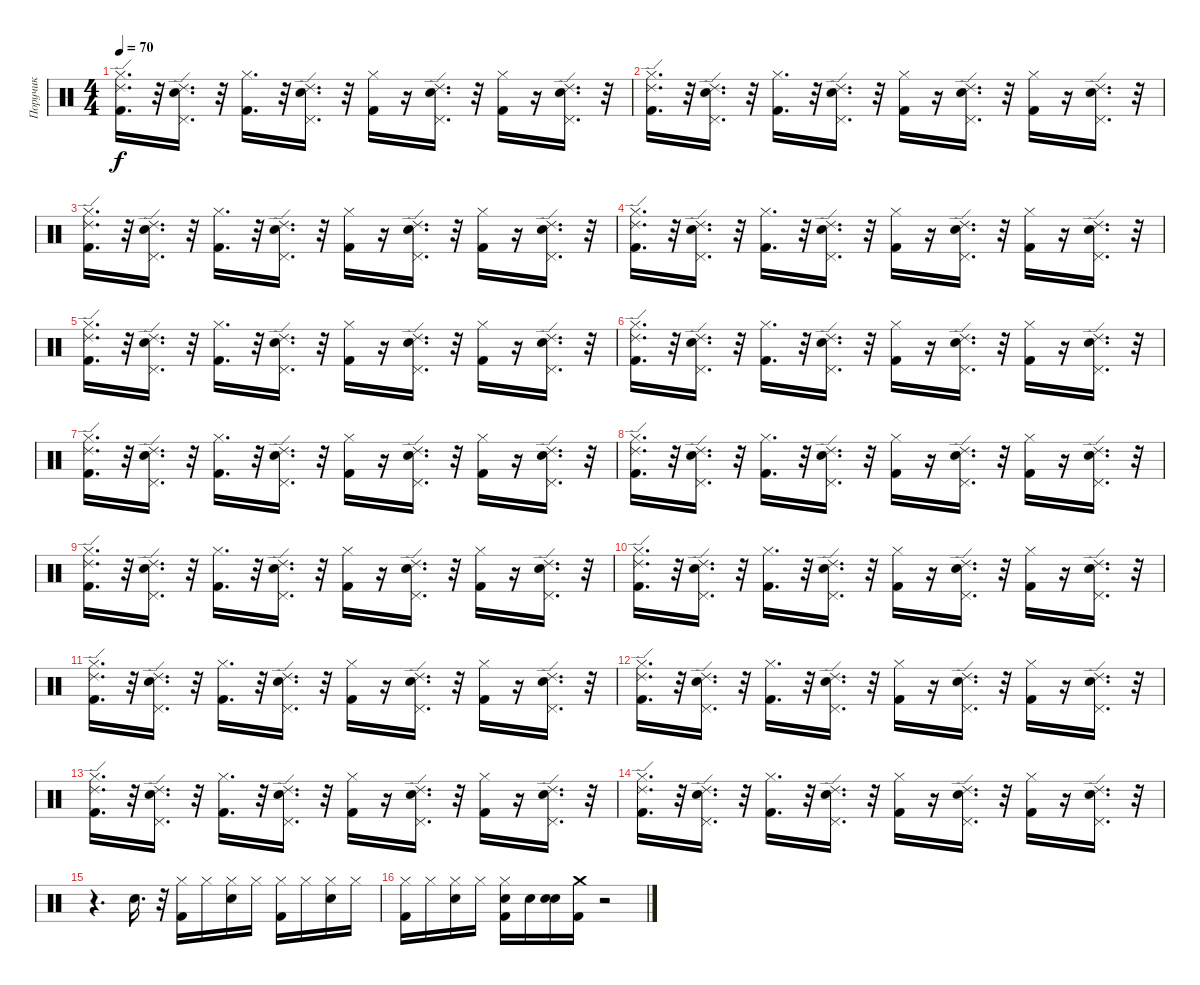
\track ("Поручик" "Поручик") {instrument percussion}
\staff {score}
\articulation defaults
\ts (4 4)
\tempo 70
\clef neutral
\ks c
("Ride (edge) 2" "Kick (hit) 2" "Hi-Hat (closed)").16{d dy f} r.32 ("Electric Snare (hit)" "Pedal Hi-Hat (hit)" "Ride (edge) 2").16{d} r.32 ("Kick (hit) 2" "Hi-Hat (closed)").16{d} r.32 ("Electric Snare (hit)" "Pedal Hi-Hat (hit)" "Ride (edge) 2").16{d} r.32 ("Hi-Hat (closed)" "Kick (hit) 2").16 r.16 ("Ride (edge) 2" "Pedal Hi-Hat (hit)" "Electric Snare (hit)").16{d} r.32 ("Hi-Hat (closed)" "Kick (hit) 2").16 r.16 ("Ride (edge) 2" "Pedal Hi-Hat (hit)" "Electric Snare (hit)").16{d} r.32 |
("Ride (edge) 2" "Kick (hit) 2" "Hi-Hat (closed)").16{d} r.32 ("Electric Snare (hit)" "Pedal Hi-Hat (hit)" "Ride (edge) 2").16{d} r.32 ("Kick (hit) 2" "Hi-Hat (closed)").16{d} r.32 ("Electric Snare (hit)" "Pedal Hi-Hat (hit)" "Ride (edge) 2").16{d} r.32 ("Hi-Hat (closed)" "Kick (hit) 2").16 r.16 ("Ride (edge) 2" "Pedal Hi-Hat (hit)" "Electric Snare (hit)").16{d} r.32 ("Hi-Hat (closed)" "Kick (hit) 2").16 r.16 ("Ride (edge) 2" "Pedal Hi-Hat (hit)" "Electric Snare (hit)").16{d} r.32 |
("Ride (edge) 2" "Kick (hit) 2" "Hi-Hat (closed)").16{d} r.32 ("Electric Snare (hit)" "Pedal Hi-Hat (hit)" "Ride (edge) 2").16{d} r.32 ("Kick (hit) 2" "Hi-Hat (closed)").16{d} r.32 ("Electric Snare (hit)" "Pedal Hi-Hat (hit)" "Ride (edge) 2").16{d} r.32 ("Hi-Hat (closed)" "Kick (hit) 2").16 r.16 ("Ride (edge) 2" "Pedal Hi-Hat (hit)" "Electric Snare (hit)").16{d} r.32 ("Hi-Hat (closed)" "Kick (hit) 2").16 r.16 ("Ride (edge) 2" "Pedal Hi-Hat (hit)" "Electric Snare (hit)").16{d} r.32 |
("Ride (edge) 2" "Kick (hit) 2" "Hi-Hat (closed)").16{d} r.32 ("Electric Snare (hit)" "Pedal Hi-Hat (hit)" "Ride (edge) 2").16{d} r.32 ("Kick (hit) 2" "Hi-Hat (closed)").16{d} r.32 ("Electric Snare (hit)" "Pedal Hi-Hat (hit)" "Ride (edge) 2").16{d} r.32 ("Hi-Hat (closed)" "Kick (hit) 2").16 r.16 ("Ride (edge) 2" "Pedal Hi-Hat (hit)" "Electric Snare (hit)").16{d} r.32 ("Hi-Hat (closed)" "Kick (hit) 2").16 r.16 ("Ride (edge) 2" "Pedal Hi-Hat (hit)" "Electric Snare (hit)").16{d} r.32 |
("Ride (edge) 2" "Kick (hit) 2" "Hi-Hat (closed)").16{d} r.32 ("Electric Snare (hit)" "Pedal Hi-Hat (hit)" "Ride (edge) 2").16{d} r.32 ("Kick (hit) 2" "Hi-Hat (closed)").16{d} r.32 ("Electric Snare (hit)" "Pedal Hi-Hat (hit)" "Ride (edge) 2").16{d} r.32 ("Hi-Hat (closed)" "Kick (hit) 2").16 r.16 ("Ride (edge) 2" "Pedal Hi-Hat (hit)" "Electric Snare (hit)").16{d} r.32 ("Hi-Hat (closed)" "Kick (hit) 2").16 r.16 ("Ride (edge) 2" "Pedal Hi-Hat (hit)" "Electric Snare (hit)").16{d} r.32 |
("Ride (edge) 2" "Kick (hit) 2" "Hi-Hat (closed)").16{d} r.32 ("Electric Snare (hit)" "Pedal Hi-Hat (hit)" "Ride (edge) 2").16{d} r.32 ("Kick (hit) 2" "Hi-Hat (closed)").16{d} r.32 ("Electric Snare (hit)" "Pedal Hi-Hat (hit)" "Ride (edge) 2").16{d} r.32 ("Hi-Hat (closed)" "Kick (hit) 2").16 r.16 ("Ride (edge) 2" "Pedal Hi-Hat (hit)" "Electric Snare (hit)").16{d} r.32 ("Hi-Hat (closed)" "Kick (hit) 2").16 r.16 ("Ride (edge) 2" "Pedal Hi-Hat (hit)" "Electric Snare (hit)").16{d} r.32 |
("Ride (edge) 2" "Kick (hit) 2" "Hi-Hat (closed)").16{d} r.32 ("Electric Snare (hit)" "Pedal Hi-Hat (hit)" "Ride (edge) 2").16{d} r.32 ("Kick (hit) 2" "Hi-Hat (closed)").16{d} r.32 ("Electric Snare (hit)" "Pedal Hi-Hat (hit)" "Ride (edge) 2").16{d} r.32 ("Hi-Hat (closed)" "Kick (hit) 2").16 r.16 ("Ride (edge) 2" "Pedal Hi-Hat (hit)" "Electric Snare (hit)").16{d} r.32 ("Hi-Hat (closed)" "Kick (hit) 2").16 r.16 ("Ride (edge) 2" "Pedal Hi-Hat (hit)" "Electric Snare (hit)").16{d} r.32 |
("Ride (edge) 2" "Kick (hit) 2" "Hi-Hat (closed)").16{d} r.32 ("Electric Snare (hit)" "Pedal Hi-Hat (hit)" "Ride (edge) 2").16{d} r.32 ("Kick (hit) 2" "Hi-Hat (closed)").16{d} r.32 ("Electric Snare (hit)" "Pedal Hi-Hat (hit)" "Ride (edge) 2").16{d} r.32 ("Hi-Hat (closed)" "Kick (hit) 2").16 r.16 ("Ride (edge) 2" "Pedal Hi-Hat (hit)" "Electric Snare (hit)").16{d} r.32 ("Hi-Hat (closed)" "Kick (hit) 2").16 r.16 ("Ride (edge) 2" "Pedal Hi-Hat (hit)" "Electric Snare (hit)").16{d} r.32 |
("Ride (edge) 2" "Kick (hit) 2" "Hi-Hat (closed)").16{d} r.32 ("Electric Snare (hit)" "Pedal Hi-Hat (hit)" "Ride (edge) 2").16{d} r.32 ("Kick (hit) 2" "Hi-Hat (closed)").16{d} r.32 ("Electric Snare (hit)" "Pedal Hi-Hat (hit)" "Ride (edge) 2").16{d} r.32 ("Hi-Hat (closed)" "Kick (hit) 2").16 r.16 ("Ride (edge) 2" "Pedal Hi-Hat (hit)" "Electric Snare (hit)").16{d} r.32 ("Hi-Hat (closed)" "Kick (hit) 2").16 r.16 ("Ride (edge) 2" "Pedal Hi-Hat (hit)" "Electric Snare (hit)").16{d} r.32 |
("Ride (edge) 2" "Kick (hit) 2" "Hi-Hat (closed)").16{d} r.32 ("Electric Snare (hit)" "Pedal Hi-Hat (hit)" "Ride (edge) 2").16{d} r.32 ("Kick (hit) 2" "Hi-Hat (closed)").16{d} r.32 ("Electric Snare (hit)" "Pedal Hi-Hat (hit)" "Ride (edge) 2").16{d} r.32 ("Hi-Hat (closed)" "Kick (hit) 2").16 r.16 ("Ride (edge) 2" "Pedal Hi-Hat (hit)" "Electric Snare (hit)").16{d} r.32 ("Hi-Hat (closed)" "Kick (hit) 2").16 r.16 ("Ride (edge) 2" "Pedal Hi-Hat (hit)" "Electric Snare (hit)").16{d} r.32 |
("Ride (edge) 2" "Kick (hit) 2" "Hi-Hat (closed)").16{d} r.32 ("Electric Snare (hit)" "Pedal Hi-Hat (hit)" "Ride (edge) 2").16{d} r.32 ("Kick (hit) 2" "Hi-Hat (closed)").16{d} r.32 ("Electric Snare (hit)" "Pedal Hi-Hat (hit)" "Ride (edge) 2").16{d} r.32 ("Hi-Hat (closed)" "Kick (hit) 2").16 r.16 ("Ride (edge) 2" "Pedal Hi-Hat (hit)" "Electric Snare (hit)").16{d} r.32 ("Hi-Hat (closed)" "Kick (hit) 2").16 r.16 ("Ride (edge) 2" "Pedal Hi-Hat (hit)" "Electric Snare (hit)").16{d} r.32 |
("Ride (edge) 2" "Kick (hit) 2" "Hi-Hat (closed)").16{d} r.32 ("Electric Snare (hit)" "Pedal Hi-Hat (hit)" "Ride (edge) 2").16{d} r.32 ("Kick (hit) 2" "Hi-Hat (closed)").16{d} r.32 ("Electric Snare (hit)" "Pedal Hi-Hat (hit)" "Ride (edge) 2").16{d} r.32 ("Hi-Hat (closed)" "Kick (hit) 2").16 r.16 ("Ride (edge) 2" "Pedal Hi-Hat (hit)" "Electric Snare (hit)").16{d} r.32 ("Hi-Hat (closed)" "Kick (hit) 2").16 r.16 ("Ride (edge) 2" "Pedal Hi-Hat (hit)" "Electric Snare (hit)").16{d} r.32 |
("Ride (edge) 2" "Kick (hit) 2" "Hi-Hat (closed)").16{d} r.32 ("Electric Snare (hit)" "Pedal Hi-Hat (hit)" "Ride (edge) 2").16{d} r.32 ("Kick (hit) 2" "Hi-Hat (closed)").16{d} r.32 ("Electric Snare (hit)" "Pedal Hi-Hat (hit)" "Ride (edge) 2").16{d} r.32 ("Hi-Hat (closed)" "Kick (hit) 2").16 r.16 ("Ride (edge) 2" "Pedal Hi-Hat (hit)" "Electric Snare (hit)").16{d} r.32 ("Hi-Hat (closed)" "Kick (hit) 2").16 r.16 ("Ride (edge) 2" "Pedal Hi-Hat (hit)" "Electric Snare (hit)").16{d} r.32 |
("Ride (edge) 2" "Kick (hit) 2" "Hi-Hat (closed)").16{d} r.32 ("Electric Snare (hit)" "Pedal Hi-Hat (hit)" "Ride (edge) 2").16{d} r.32 ("Kick (hit) 2" "Hi-Hat (closed)").16{d} r.32 ("Electric Snare (hit)" "Pedal Hi-Hat (hit)" "Ride (edge) 2").16{d} r.32 ("Hi-Hat (closed)" "Kick (hit) 2").16 r.16 ("Ride (edge) 2" "Pedal Hi-Hat (hit)" "Electric Snare (hit)").16{d} r.32 ("Hi-Hat (closed)" "Kick (hit) 2").16 r.16 ("Ride (edge) 2" "Pedal Hi-Hat (hit)" "Electric Snare (hit)").16{d} r.32 |
r.4{d} "Electric Snare (hit)".16{d} r.32 ("Hi-Hat (closed)" "Kick (hit) 2").16 "Hi-Hat (closed)".16 ("Hi-Hat (closed)" "Electric Snare (hit)").16 "Hi-Hat (closed)".16 ("Hi-Hat (closed)" "Kick (hit) 2").16 "Hi-Hat (closed)".16 ("Hi-Hat (closed)" "Electric Snare (hit)").16 "Hi-Hat (closed)".16 |
("Hi-Hat (closed)" "Kick (hit) 2").16 "Hi-Hat (closed)".16 ("Hi-Hat (closed)" "Electric Snare (hit)").16 "Hi-Hat (closed)".16 ("Electric Snare (hit)" "Hi-Hat (closed)" "Kick (hit) 2").16 "Electric Snare (hit)".16 ("Electric Snare (hit)" "Electric Snare (hit)").16 ("Kick (hit) 2" "Crash medium (hit)").16 r.2
